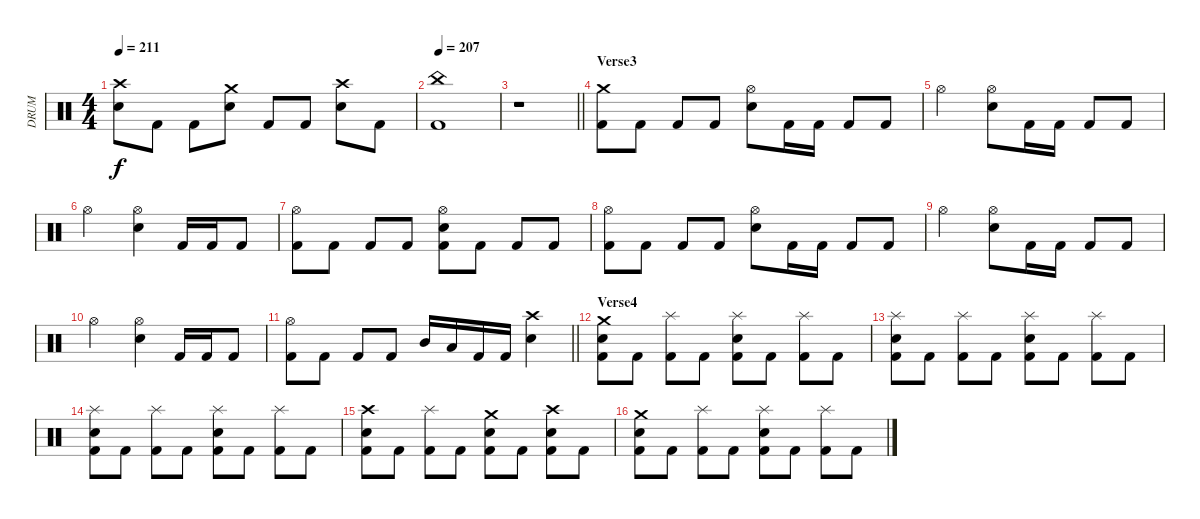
\track ("DRUM" "DRUM") {instrument percussion bank 102}
\staff {score}
\articulation defaults
\ts (4 4)
\tempo 211
\clef neutral
\ks c
("Crash high (hit)" "Electric Snare (hit)").8{dy f} "Kick (hit) 2".8 "Kick (hit) 2".8 ("Crash medium (hit)" "Electric Snare (hit)").8 "Kick (hit) 2".8 "Kick (hit) 2".8 ("Crash high (hit)" "Electric Snare (hit)").8 "Kick (hit) 2".8 |
\tempo 207
("China (hit)" "Kick (hit) 2").1 |
\barLineRight lightlight
r.1 |
\section ("" "Verse3")
("Crash medium (hit)" "Kick (hit) 2").8 "Kick (hit) 2".8 "Kick (hit) 2".8 "Kick (hit) 2".8 ("Hi-Hat (open)" "Electric Snare (hit)").8 "Kick (hit) 2".16 "Kick (hit) 2".16 "Kick (hit) 2".8 "Kick (hit) 2".8 |
"Hi-Hat (open)".2 ("Hi-Hat (open)" "Electric Snare (hit)").8 "Kick (hit) 2".16 "Kick (hit) 2".16 "Kick (hit) 2".8 "Kick (hit) 2".8 |
"Hi-Hat (open)".2 ("Hi-Hat (open)" "Electric Snare (hit)").4 "Kick (hit) 2".16 "Kick (hit) 2".16 "Kick (hit) 2".8 |
("Hi-Hat (open)" "Kick (hit) 2").8 "Kick (hit) 2".8 "Kick (hit) 2".8 "Kick (hit) 2".8 ("Hi-Hat (open)" "Electric Snare (hit)" "Kick (hit) 2").8 "Kick (hit) 2".8 "Kick (hit) 2".8 "Kick (hit) 2".8 |
("Hi-Hat (open)" "Kick (hit) 2").8 "Kick (hit) 2".8 "Kick (hit) 2".8 "Kick (hit) 2".8 ("Hi-Hat (open)" "Electric Snare (hit)").8 "Kick (hit) 2".16 "Kick (hit) 2".16 "Kick (hit) 2".8 "Kick (hit) 2".8 |
"Hi-Hat (open)".2 ("Hi-Hat (open)" "Electric Snare (hit)").8 "Kick (hit) 2".16 "Kick (hit) 2".16 "Kick (hit) 2".8 "Kick (hit) 2".8 |
"Hi-Hat (open)".2 ("Hi-Hat (open)" "Electric Snare (hit)").4 "Kick (hit) 2".16 "Kick (hit) 2".16 "Kick (hit) 2".8 |
\barLineRight lightlight
("Hi-Hat (open)" "Kick (hit) 2").8 "Kick (hit) 2".8 "Kick (hit) 2".8 "Kick (hit) 2".8 "Mid Tom (hit)".16 "Low Tom (hit)".16 "Kick (hit) 2".16 "Kick (hit) 2".16 ("Crash high (hit)" "Electric Snare (hit)").4 |
\section ("" "Verse4")
("Crash medium (hit)" "Electric Snare (hit)" "Kick (hit) 2").8 "Kick (hit) 2".8 ("Splash (hit)" "Kick (hit) 2").8 "Kick (hit) 2".8 ("Splash (hit)" "Electric Snare (hit)" "Kick (hit) 2").8 "Kick (hit) 2".8 ("Splash (hit)" "Kick (hit) 2").8 "Kick (hit) 2".8 |
("Splash (hit)" "Electric Snare (hit)" "Kick (hit) 2").8 "Kick (hit) 2".8 ("Splash (hit)" "Kick (hit) 2").8 "Kick (hit) 2".8 ("Splash (hit)" "Electric Snare (hit)" "Kick (hit) 2").8 "Kick (hit) 2".8 ("Splash (hit)" "Kick (hit) 2").8 "Kick (hit) 2".8 |
("Splash (hit)" "Electric Snare (hit)" "Kick (hit) 2").8 "Kick (hit) 2".8 ("Splash (hit)" "Kick (hit) 2").8 "Kick (hit) 2".8 ("Splash (hit)" "Electric Snare (hit)" "Kick (hit) 2").8 "Kick (hit) 2".8 ("Splash (hit)" "Kick (hit) 2").8 "Kick (hit) 2".8 |
("Crash high (hit)" "Electric Snare (hit)" "Kick (hit) 2").8 "Kick (hit) 2".8 ("Splash (hit)" "Kick (hit) 2").8 "Kick (hit) 2".8 ("Crash medium (hit)" "Electric Snare (hit)" "Kick (hit) 2").8 "Kick (hit) 2".8 ("Crash high (hit)" "Electric Snare (hit)" "Kick (hit) 2").8 "Kick (hit) 2".8 |
("Crash medium (hit)" "Electric Snare (hit)" "Kick (hit) 2").8 "Kick (hit) 2".8 ("Splash (hit)" "Kick (hit) 2").8 "Kick (hit) 2".8 ("Splash (hit)" "Electric Snare (hit)" "Kick (hit) 2").8 "Kick (hit) 2".8 ("Splash (hit)" "Kick (hit) 2").8 "Kick (hit) 2".8
